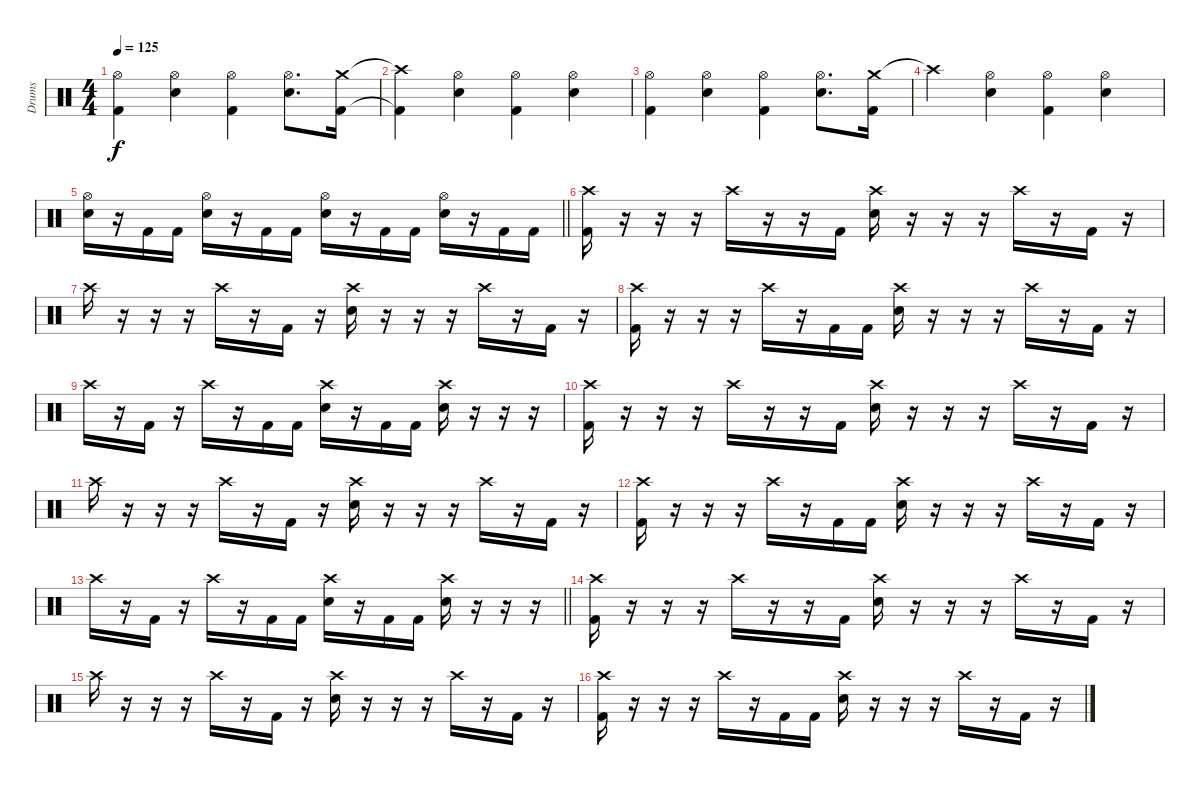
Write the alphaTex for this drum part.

\track ("Drums" "Drums") {instrument percussion}
\staff
\articulation defaults
\ts (4 4)
\tempo 125
\clef neutral
\ks c
("Hi-Hat (open)" "Kick (hit) 2").4{dy f} ("Hi-Hat (open)" "Electric Snare (hit)").4 ("Hi-Hat (open)" "Kick (hit) 2").4 ("Hi-Hat (open)" "Electric Snare (hit)").8{d} ("Crash medium (hit)" "Kick (hit) 2").16 |
("Crash high (hit)"{t} "Kick (hit) 2"{t}).4 ("Hi-Hat (open)" "Electric Snare (hit)").4 ("Hi-Hat (open)" "Kick (hit) 2").4 ("Hi-Hat (open)" "Electric Snare (hit)").4 |
("Hi-Hat (open)" "Kick (hit) 2").4 ("Hi-Hat (open)" "Electric Snare (hit)").4 ("Hi-Hat (open)" "Kick (hit) 2").4 ("Hi-Hat (open)" "Electric Snare (hit)").8{d} ("Crash medium (hit)" "Kick (hit) 2").16 |
"Crash high (hit)"{t}.4 ("Hi-Hat (open)" "Electric Snare (hit)").4 ("Hi-Hat (open)" "Kick (hit) 2").4 ("Hi-Hat (open)" "Electric Snare (hit)").4 |
\barLineRight lightlight
("Hi-Hat (open)" "Electric Snare (hit)").16 r.16 "Kick (hit) 2".16 "Kick (hit) 2".16 ("Hi-Hat (open)" "Electric Snare (hit)").16 r.16 "Kick (hit) 2".16 "Kick (hit) 2".16 ("Hi-Hat (open)" "Electric Snare (hit)").16 r.16 "Kick (hit) 2".16 "Kick (hit) 2".16 ("Hi-Hat (open)" "Electric Snare (hit)").16 r.16 "Kick (hit) 2".16 "Kick (hit) 2".16 |
\section ("" "")
("Crash high (hit)" "Kick (hit) 2").16 r.16 r.16 r.16 "Crash high (hit)".16 r.16 r.16 "Kick (hit) 2".16 ("Crash high (hit)" "Electric Snare (hit)").16 r.16 r.16 r.16 "Crash high (hit)".16 r.16 "Kick (hit) 2".16 r.16 |
"Crash high (hit)".16 r.16 r.16 r.16 "Crash high (hit)".16 r.16 "Kick (hit) 2".16 r.16 ("Crash high (hit)" "Electric Snare (hit)").16 r.16 r.16 r.16 "Crash high (hit)".16 r.16 "Kick (hit) 2".16 r.16 |
("Crash high (hit)" "Kick (hit) 2").16 r.16 r.16 r.16 "Crash high (hit)".16 r.16 "Kick (hit) 2".16 "Kick (hit) 2".16 ("Crash high (hit)" "Electric Snare (hit)").16 r.16 r.16 r.16 "Crash high (hit)".16 r.16 "Kick (hit) 2".16 r.16 |
"Crash high (hit)".16 r.16 "Kick (hit) 2".16 r.16 "Crash high (hit)".16 r.16 "Kick (hit) 2".16 "Kick (hit) 2".16 ("Crash high (hit)" "Electric Snare (hit)").16 r.16 "Kick (hit) 2".16 "Kick (hit) 2".16 ("Crash high (hit)" "Electric Snare (hit)").16 r.16 r.16 r.16 |
("Crash high (hit)" "Kick (hit) 2").16 r.16 r.16 r.16 "Crash high (hit)".16 r.16 r.16 "Kick (hit) 2".16 ("Crash high (hit)" "Electric Snare (hit)").16 r.16 r.16 r.16 "Crash high (hit)".16 r.16 "Kick (hit) 2".16 r.16 |
"Crash high (hit)".16 r.16 r.16 r.16 "Crash high (hit)".16 r.16 "Kick (hit) 2".16 r.16 ("Crash high (hit)" "Electric Snare (hit)").16 r.16 r.16 r.16 "Crash high (hit)".16 r.16 "Kick (hit) 2".16 r.16 |
("Crash high (hit)" "Kick (hit) 2").16 r.16 r.16 r.16 "Crash high (hit)".16 r.16 "Kick (hit) 2".16 "Kick (hit) 2".16 ("Crash high (hit)" "Electric Snare (hit)").16 r.16 r.16 r.16 "Crash high (hit)".16 r.16 "Kick (hit) 2".16 r.16 |
\barLineRight lightlight "Crash high (hit)".16
r.16 "Kick (hit) 2".16 r.16 "Crash high (hit)".16 r.16 "Kick (hit) 2".16 "Kick (hit) 2".16 ("Crash high (hit)" "Electric Snare (hit)").16 r.16 "Kick (hit) 2".16 "Kick (hit) 2".16 ("Crash high (hit)" "Electric Snare (hit)").16 r.16 r.16 r.16 |
("Crash high (hit)" "Kick (hit) 2").16 r.16 r.16 r.16 "Crash high (hit)".16 r.16 r.16 "Kick (hit) 2".16 ("Crash high (hit)" "Electric Snare (hit)").16 r.16 r.16 r.16 "Crash high (hit)".16 r.16 "Kick (hit) 2".16 r.16 |
"Crash high (hit)".16 r.16 r.16 r.16 "Crash high (hit)".16 r.16 "Kick (hit) 2".16 r.16 ("Crash high (hit)" "Electric Snare (hit)").16 r.16 r.16 r.16 "Crash high (hit)".16 r.16 "Kick (hit) 2".16 r.16 |
("Crash high (hit)" "Kick (hit) 2").16 r.16 r.16 r.16 "Crash high (hit)".16 r.16 "Kick (hit) 2".16 "Kick (hit) 2".16 ("Crash high (hit)" "Electric Snare (hit)").16 r.16 r.16 r.16 "Crash high (hit)".16 r.16 "Kick (hit) 2".16 r.16
